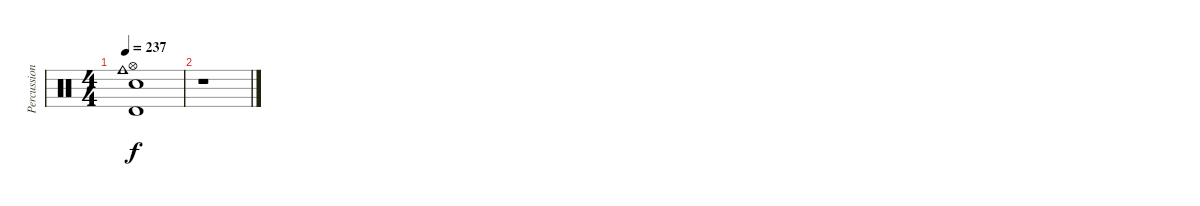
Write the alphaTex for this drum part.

\track ("Percussions" "Percussion") {instrument percussion}
\staff {score}
\articulation defaults
\ts (4 4)
\tempo 237
\clef neutral
\ks c
("Hi-Hat (open)" "Cowbell medium (hit)" "Timbale high (hit)" "Hand Clap (hit)").1{dy f} |
r.1
